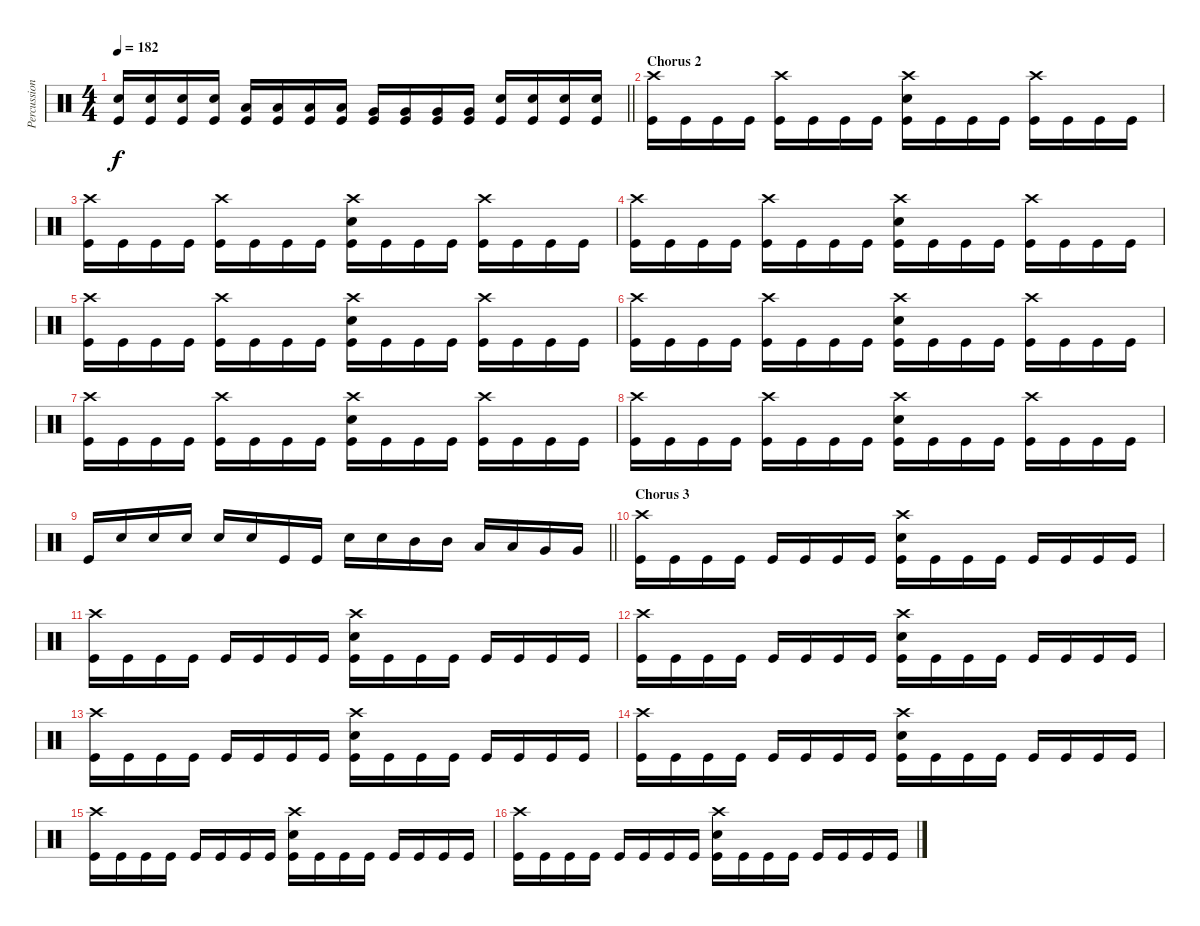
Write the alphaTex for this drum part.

\track ("Percussion" "Percussion") {instrument percussion}
\staff {score}
\articulation defaults
\ts (4 4)
\tempo 182
\clef neutral
\barLineRight lightlight
\ks c
("Snare (hit) 2" "Kick (hit)").16{dy f} ("Snare (hit) 2" "Kick (hit)").16 ("Snare (hit) 2" "Kick (hit)").16 ("Snare (hit) 2" "Kick (hit)").16 ("Low Tom (hit)" "Kick (hit)").16 ("Low Tom (hit)" "Kick (hit)").16 ("Low Tom (hit)" "Kick (hit)").16 ("Low Tom (hit)" "Kick (hit)").16 ("Very Low Tom (hit)" "Kick (hit)").16 ("Very Low Tom (hit)" "Kick (hit)").16 ("Very Low Tom (hit)" "Kick (hit)").16 ("Very Low Tom (hit)" "Kick (hit)").16 ("Snare (hit) 2" "Kick (hit)").16 ("Snare (hit) 2" "Kick (hit)").16 ("Snare (hit) 2" "Kick (hit)").16 ("Snare (hit) 2" "Kick (hit)").16 |
\section ("" "Chorus 2")
("Crash high (hit)" "Kick (hit)").16 "Kick (hit)".16 "Kick (hit)".16 "Kick (hit)".16 ("Crash high (hit)" "Kick (hit)").16 "Kick (hit)".16 "Kick (hit)".16 "Kick (hit)".16 ("Snare (hit) 2" "Crash high (hit)" "Kick (hit)").16 "Kick (hit)".16 "Kick (hit)".16 "Kick (hit)".16 ("Crash high (hit)" "Kick (hit)").16 "Kick (hit)".16 "Kick (hit)".16 "Kick (hit)".16 |
("Crash high (hit)" "Kick (hit)").16 "Kick (hit)".16 "Kick (hit)".16 "Kick (hit)".16 ("Crash high (hit)" "Kick (hit)").16 "Kick (hit)".16 "Kick (hit)".16 "Kick (hit)".16 ("Snare (hit) 2" "Crash high (hit)" "Kick (hit)").16 "Kick (hit)".16 "Kick (hit)".16 "Kick (hit)".16 ("Crash high (hit)" "Kick (hit)").16 "Kick (hit)".16 "Kick (hit)".16 "Kick (hit)".16 |
("Crash high (hit)" "Kick (hit)").16 "Kick (hit)".16 "Kick (hit)".16 "Kick (hit)".16 ("Crash high (hit)" "Kick (hit)").16 "Kick (hit)".16 "Kick (hit)".16 "Kick (hit)".16 ("Snare (hit) 2" "Crash high (hit)" "Kick (hit)").16 "Kick (hit)".16 "Kick (hit)".16 "Kick (hit)".16 ("Crash high (hit)" "Kick (hit)").16 "Kick (hit)".16 "Kick (hit)".16 "Kick (hit)".16 |
("Crash high (hit)" "Kick (hit)").16 "Kick (hit)".16 "Kick (hit)".16 "Kick (hit)".16 ("Crash high (hit)" "Kick (hit)").16 "Kick (hit)".16 "Kick (hit)".16 "Kick (hit)".16 ("Snare (hit) 2" "Crash high (hit)" "Kick (hit)").16 "Kick (hit)".16 "Kick (hit)".16 "Kick (hit)".16 ("Crash high (hit)" "Kick (hit)").16 "Kick (hit)".16 "Kick (hit)".16 "Kick (hit)".16 |
("Crash high (hit)" "Kick (hit)").16 "Kick (hit)".16 "Kick (hit)".16 "Kick (hit)".16 ("Crash high (hit)" "Kick (hit)").16 "Kick (hit)".16 "Kick (hit)".16 "Kick (hit)".16 ("Snare (hit) 2" "Crash high (hit)" "Kick (hit)").16 "Kick (hit)".16 "Kick (hit)".16 "Kick (hit)".16 ("Crash high (hit)" "Kick (hit)").16 "Kick (hit)".16 "Kick (hit)".16 "Kick (hit)".16 |
("Crash high (hit)" "Kick (hit)").16 "Kick (hit)".16 "Kick (hit)".16 "Kick (hit)".16 ("Crash high (hit)" "Kick (hit)").16 "Kick (hit)".16 "Kick (hit)".16 "Kick (hit)".16 ("Snare (hit) 2" "Crash high (hit)" "Kick (hit)").16 "Kick (hit)".16 "Kick (hit)".16 "Kick (hit)".16 ("Crash high (hit)" "Kick (hit)").16 "Kick (hit)".16 "Kick (hit)".16 "Kick (hit)".16 |
("Crash high (hit)" "Kick (hit)").16 "Kick (hit)".16 "Kick (hit)".16 "Kick (hit)".16 ("Crash high (hit)" "Kick (hit)").16 "Kick (hit)".16 "Kick (hit)".16 "Kick (hit)".16 ("Snare (hit) 2" "Crash high (hit)" "Kick (hit)").16 "Kick (hit)".16 "Kick (hit)".16 "Kick (hit)".16 ("Crash high (hit)" "Kick (hit)").16 "Kick (hit)".16 "Kick (hit)".16 "Kick (hit)".16 |
\barLineRight lightlight "Kick (hit)".16 "Snare (hit) 2".16 "Snare (hit) 2".16 "Snare (hit) 2".16 "Snare (hit) 2".16 "Snare (hit) 2".16 "Kick (hit)".16 "Kick (hit)".16 "Snare (hit) 2".16 "Snare (hit) 2".16 "Mid Tom (hit)".16 "Mid Tom (hit)".16 "Low Tom (hit)".16 "Low Tom (hit)".16 "Very Low Tom (hit)".16 "Very Low Tom (hit)".16
|
\section ("" "Chorus 3")
("Crash high (hit)" "Kick (hit)").16 "Kick (hit)".16 "Kick (hit)".16 "Kick (hit)".16 "Kick (hit)".16 "Kick (hit)".16 "Kick (hit)".16 "Kick (hit)".16 ("Crash high (hit)" "Snare (hit) 2" "Kick (hit)").16 "Kick (hit)".16 "Kick (hit)".16 "Kick (hit)".16 "Kick (hit)".16 "Kick (hit)".16 "Kick (hit)".16 "Kick (hit)".16 |
("Crash high (hit)" "Kick (hit)").16 "Kick (hit)".16 "Kick (hit)".16 "Kick (hit)".16 "Kick (hit)".16 "Kick (hit)".16 "Kick (hit)".16 "Kick (hit)".16 ("Crash high (hit)" "Snare (hit) 2" "Kick (hit)").16 "Kick (hit)".16 "Kick (hit)".16 "Kick (hit)".16 "Kick (hit)".16 "Kick (hit)".16 "Kick (hit)".16 "Kick (hit)".16 |
("Crash high (hit)" "Kick (hit)").16 "Kick (hit)".16 "Kick (hit)".16 "Kick (hit)".16 "Kick (hit)".16 "Kick (hit)".16 "Kick (hit)".16 "Kick (hit)".16 ("Crash high (hit)" "Snare (hit) 2" "Kick (hit)").16 "Kick (hit)".16 "Kick (hit)".16 "Kick (hit)".16 "Kick (hit)".16 "Kick (hit)".16 "Kick (hit)".16 "Kick (hit)".16 |
("Crash high (hit)" "Kick (hit)").16 "Kick (hit)".16 "Kick (hit)".16 "Kick (hit)".16 "Kick (hit)".16 "Kick (hit)".16 "Kick (hit)".16 "Kick (hit)".16 ("Crash high (hit)" "Snare (hit) 2" "Kick (hit)").16 "Kick (hit)".16 "Kick (hit)".16 "Kick (hit)".16 "Kick (hit)".16 "Kick (hit)".16 "Kick (hit)".16 "Kick (hit)".16 |
("Crash high (hit)" "Kick (hit)").16 "Kick (hit)".16 "Kick (hit)".16 "Kick (hit)".16 "Kick (hit)".16 "Kick (hit)".16 "Kick (hit)".16 "Kick (hit)".16 ("Crash high (hit)" "Snare (hit) 2" "Kick (hit)").16 "Kick (hit)".16 "Kick (hit)".16 "Kick (hit)".16 "Kick (hit)".16 "Kick (hit)".16 "Kick (hit)".16 "Kick (hit)".16 |
("Crash high (hit)" "Kick (hit)").16 "Kick (hit)".16 "Kick (hit)".16 "Kick (hit)".16 "Kick (hit)".16 "Kick (hit)".16 "Kick (hit)".16 "Kick (hit)".16 ("Crash high (hit)" "Snare (hit) 2" "Kick (hit)").16 "Kick (hit)".16 "Kick (hit)".16 "Kick (hit)".16 "Kick (hit)".16 "Kick (hit)".16 "Kick (hit)".16 "Kick (hit)".16 |
("Crash high (hit)" "Kick (hit)").16 "Kick (hit)".16 "Kick (hit)".16 "Kick (hit)".16 "Kick (hit)".16 "Kick (hit)".16 "Kick (hit)".16 "Kick (hit)".16 ("Crash high (hit)" "Snare (hit) 2" "Kick (hit)").16 "Kick (hit)".16 "Kick (hit)".16 "Kick (hit)".16 "Kick (hit)".16 "Kick (hit)".16 "Kick (hit)".16 "Kick (hit)".16
